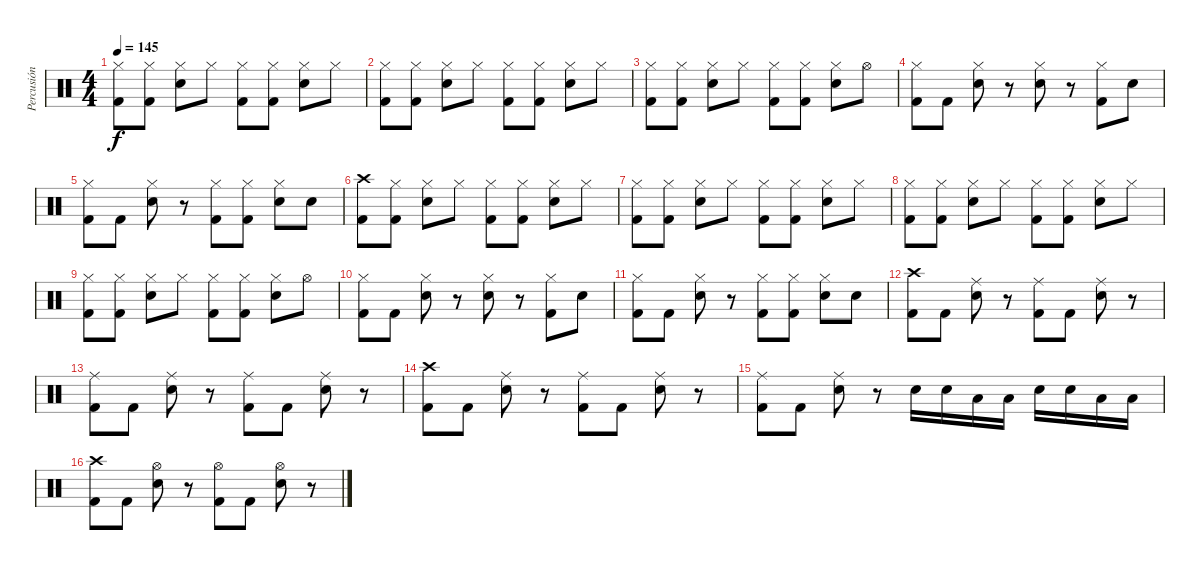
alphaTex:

\track ("Percusión" "Percusión") {instrument percussion}
\staff {score}
\articulation defaults
\ts (4 4)
\tempo 145
\clef neutral
\ks c
("Hi-Hat (closed)" "Kick (hit) 2").8{dy f} ("Hi-Hat (closed)" "Kick (hit) 2").8 ("Hi-Hat (closed)" "Electric Snare (hit)").8 "Hi-Hat (closed)".8 ("Hi-Hat (closed)" "Kick (hit) 2").8 ("Hi-Hat (closed)" "Kick (hit) 2").8 ("Hi-Hat (closed)" "Electric Snare (hit)").8 "Hi-Hat (closed)".8 |
("Hi-Hat (closed)" "Kick (hit) 2").8 ("Hi-Hat (closed)" "Kick (hit) 2").8 ("Hi-Hat (closed)" "Electric Snare (hit)").8 "Hi-Hat (closed)".8 ("Hi-Hat (closed)" "Kick (hit) 2").8 ("Hi-Hat (closed)" "Kick (hit) 2").8 ("Hi-Hat (closed)" "Electric Snare (hit)").8 "Hi-Hat (closed)".8 |
("Hi-Hat (closed)" "Kick (hit) 2").8 ("Hi-Hat (closed)" "Kick (hit) 2").8 ("Hi-Hat (closed)" "Electric Snare (hit)").8 "Hi-Hat (closed)".8 ("Hi-Hat (closed)" "Kick (hit) 2").8 ("Hi-Hat (closed)" "Kick (hit) 2").8 ("Hi-Hat (closed)" "Electric Snare (hit)").8 "Hi-Hat (open)".8 |
("Hi-Hat (closed)" "Kick (hit) 2").8 "Kick (hit) 2".8 ("Hi-Hat (closed)" "Electric Snare (hit)").8 r.8 ("Hi-Hat (closed)" "Electric Snare (hit)").8 r.8 ("Hi-Hat (closed)" "Kick (hit) 2").8 "Electric Snare (hit)".8 |
("Hi-Hat (closed)" "Kick (hit) 2").8 "Kick (hit) 2".8 ("Hi-Hat (closed)" "Electric Snare (hit)").8 r.8 ("Hi-Hat (closed)" "Kick (hit) 2").8 ("Hi-Hat (closed)" "Kick (hit) 2").8 ("Hi-Hat (closed)" "Electric Snare (hit)").8 "Electric Snare (hit)".8 |
("Crash high (hit)" "Kick (hit) 2").8 ("Hi-Hat (closed)" "Kick (hit) 2").8 ("Hi-Hat (closed)" "Electric Snare (hit)").8 "Hi-Hat (closed)".8 ("Hi-Hat (closed)" "Kick (hit) 2").8 ("Hi-Hat (closed)" "Kick (hit) 2").8 ("Hi-Hat (closed)" "Electric Snare (hit)").8 "Hi-Hat (closed)".8 |
("Hi-Hat (closed)" "Kick (hit) 2").8 ("Hi-Hat (closed)" "Kick (hit) 2").8 ("Hi-Hat (closed)" "Electric Snare (hit)").8 "Hi-Hat (closed)".8 ("Hi-Hat (closed)" "Kick (hit) 2").8 ("Hi-Hat (closed)" "Kick (hit) 2").8 ("Hi-Hat (closed)" "Electric Snare (hit)").8 "Hi-Hat (closed)".8 |
("Hi-Hat (closed)" "Kick (hit) 2").8 ("Hi-Hat (closed)" "Kick (hit) 2").8 ("Hi-Hat (closed)" "Electric Snare (hit)").8 "Hi-Hat (closed)".8 ("Hi-Hat (closed)" "Kick (hit) 2").8 ("Hi-Hat (closed)" "Kick (hit) 2").8 ("Hi-Hat (closed)" "Electric Snare (hit)").8 "Hi-Hat (closed)".8 |
("Hi-Hat (closed)" "Kick (hit) 2").8 ("Hi-Hat (closed)" "Kick (hit) 2").8 ("Hi-Hat (closed)" "Electric Snare (hit)").8 "Hi-Hat (closed)".8 ("Hi-Hat (closed)" "Kick (hit) 2").8 ("Hi-Hat (closed)" "Kick (hit) 2").8 ("Hi-Hat (closed)" "Electric Snare (hit)").8 "Hi-Hat (open)".8 |
("Hi-Hat (closed)" "Kick (hit) 2").8 "Kick (hit) 2".8 ("Hi-Hat (closed)" "Electric Snare (hit)").8 r.8 ("Hi-Hat (closed)" "Electric Snare (hit)").8 r.8 ("Hi-Hat (closed)" "Kick (hit) 2").8 "Electric Snare (hit)".8 |
("Hi-Hat (closed)" "Kick (hit) 2").8 "Kick (hit) 2".8 ("Hi-Hat (closed)" "Electric Snare (hit)").8 r.8 ("Hi-Hat (closed)" "Kick (hit) 2").8 ("Hi-Hat (closed)" "Kick (hit) 2").8 ("Hi-Hat (closed)" "Electric Snare (hit)").8 "Electric Snare (hit)".8 |
("Crash high (hit)" "Kick (hit) 2").8 "Kick (hit) 2".8 ("Ride (middle)" "Electric Snare (hit)").8 r.8 ("Ride (middle)" "Kick (hit) 2").8 "Kick (hit) 2".8 ("Ride (middle)" "Electric Snare (hit)").8 r.8 |
("Ride (middle)" "Kick (hit) 2").8 "Kick (hit) 2".8 ("Ride (middle)" "Electric Snare (hit)").8 r.8 ("Ride (middle)" "Kick (hit) 2").8 "Kick (hit) 2".8 ("Ride (middle)" "Electric Snare (hit)").8 r.8 |
("Crash high (hit)" "Kick (hit) 2").8 "Kick (hit) 2".8 ("Ride (middle)" "Electric Snare (hit)").8 r.8 ("Ride (middle)" "Kick (hit) 2").8 "Kick (hit) 2".8 ("Ride (middle)" "Electric Snare (hit)").8 r.8 |
("Ride (middle)" "Kick (hit) 2").8 "Kick (hit) 2".8 ("Ride (middle)" "Electric Snare (hit)").8 r.8 "Electric Snare (hit)".16 "Electric Snare (hit)".16 "Low Tom (hit)".16 "Low Tom (hit)".16 "Electric Snare (hit)".16 "Electric Snare (hit)".16 "Low Tom (hit)".16 "Low Tom (hit)".16 |
("Crash high (hit)" "Kick (hit) 2").8 "Kick (hit) 2".8 ("Hi-Hat (open)" "Electric Snare (hit)").8 r.8 ("Hi-Hat (open)" "Kick (hit) 2").8 "Kick (hit) 2".8 ("Hi-Hat (open)" "Electric Snare (hit)").8 r.8
